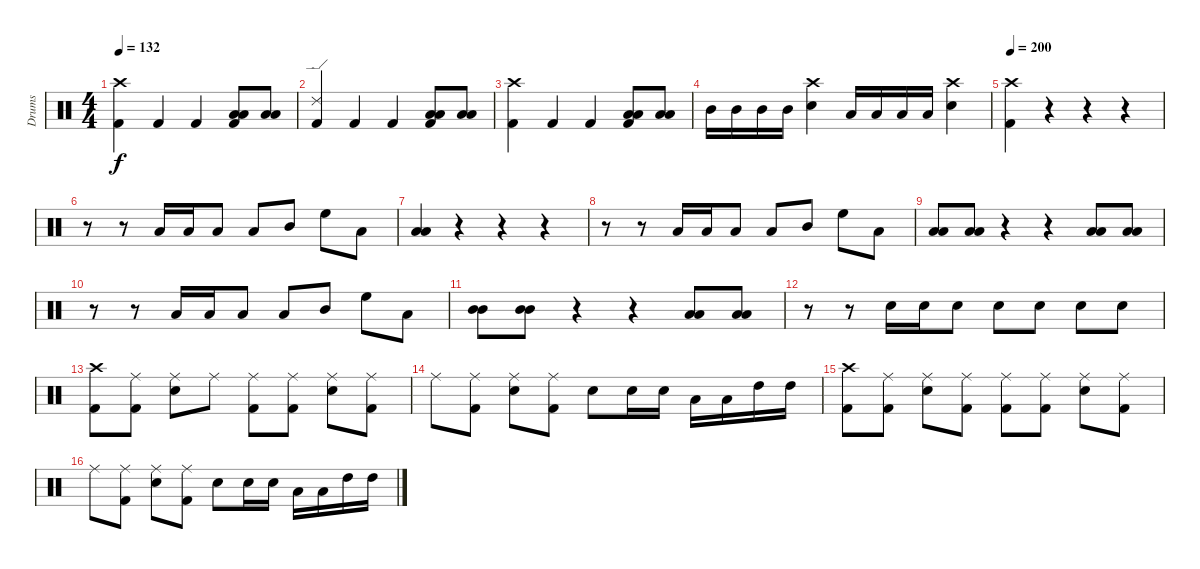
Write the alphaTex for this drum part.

\track ("Drums" "Drums") {instrument percussion}
\staff {score}
\articulation defaults
\ts (4 4)
\tempo 132
\clef neutral
\ks c
("Kick (hit) 2" "Crash high (hit)").4{dy f} "Kick (hit) 2".4 "Kick (hit) 2".4 ("Kick (hit) 2" "Low Floor Tom (hit)" "Low Floor Tom (hit)").8 ("Low Floor Tom (hit)" "Low Floor Tom (hit)").8 |
("Kick (hit) 2" "Ride (edge) 2").4 "Kick (hit) 2".4 "Kick (hit) 2".4 ("Kick (hit) 2" "Low Floor Tom (hit)" "Low Floor Tom (hit)").8 ("Low Floor Tom (hit)" "Low Floor Tom (hit)").8 |
("Kick (hit) 2" "Crash high (hit)").4 "Kick (hit) 2".4 "Kick (hit) 2".4 ("Kick (hit) 2" "Low Floor Tom (hit)" "Low Floor Tom (hit)").8 ("Low Floor Tom (hit)" "Low Floor Tom (hit)").8 |
"Mid Tom (hit)".16 "Mid Tom (hit)".16 "Mid Tom (hit)".16 "Mid Tom (hit)".16 ("Snare (hit) 2" "Crash high (hit)").4 "Low Tom (hit)".16 "Low Tom (hit)".16 "Low Tom (hit)".16 "Low Tom (hit)".16 ("Snare (hit) 2" "Crash high (hit)").4 |
\tempo 200
("Kick (hit) 2" "Crash high (hit)").4 r.4 r.4 r.4 |
r.8 r.8 "Low Tom (hit)".16 "Low Tom (hit)".16 "Low Tom (hit)".8 "Low Tom (hit)".8 "Mid Tom (hit)".8 "High Floor Tom (hit)".8 "Low Tom (hit)".8 |
("Low Tom (hit)" "Low Tom (hit)").4 r.4 r.4 r.4 |
r.8 r.8 "Low Tom (hit)".16 "Low Tom (hit)".16 "Low Tom (hit)".8 "Low Tom (hit)".8 "Mid Tom (hit)".8 "High Floor Tom (hit)".8 "Low Tom (hit)".8 |
("Low Tom (hit)" "Low Tom (hit)").8 ("Low Tom (hit)" "Low Tom (hit)").8 r.4 r.4 ("Low Tom (hit)" "Low Tom (hit)").8 ("Low Tom (hit)" "Low Tom (hit)").8 |
r.8 r.8 "Low Tom (hit)".16 "Low Tom (hit)".16 "Low Tom (hit)".8 "Low Tom (hit)".8 "Mid Tom (hit)".8 "High Floor Tom (hit)".8 "Low Tom (hit)".8 |
("Mid Tom (hit)" "Mid Tom (hit)").8 ("Mid Tom (hit)" "Mid Tom (hit)").8 r.4 r.4 ("Low Tom (hit)" "Low Tom (hit)").8 ("Low Tom (hit)" "Low Tom (hit)").8 |
r.8 r.8 "Snare (hit) 2".16 "Snare (hit) 2".16 "Snare (hit) 2".8 "Snare (hit) 2".8 "Snare (hit) 2".8 "Snare (hit) 2".8 "Snare (hit) 2".8 |
("Kick (hit) 2" "Crash high (hit)").8 ("Kick (hit) 2" "Ride (middle)").8 ("Snare (hit) 2" "Ride (middle)").8 "Ride (middle)".8 ("Kick (hit) 2" "Ride (middle)").8 ("Kick (hit) 2" "Ride (middle)").8 ("Snare (hit) 2" "Ride (middle)").8 ("Kick (hit) 2" "Ride (middle)").8 |
"Ride (middle)".8 ("Kick (hit) 2" "Ride (middle)").8 ("Snare (hit) 2" "Ride (middle)").8 ("Kick (hit) 2" "Ride (middle)").8 "Snare (hit) 2".8 "Snare (hit) 2".16 "Snare (hit) 2".16 "Low Tom (hit)".16 "Low Tom (hit)".16 "High Tom (hit)".16 "High Tom (hit)".16 |
("Kick (hit) 2" "Crash high (hit)").8 ("Kick (hit) 2" "Ride (middle)").8 ("Snare (hit) 2" "Ride (middle)").8 ("Kick (hit) 2" "Ride (middle)").8 ("Kick (hit) 2" "Ride (middle)").8 ("Kick (hit) 2" "Ride (middle)").8 ("Snare (hit) 2" "Ride (middle)").8 ("Kick (hit) 2" "Ride (middle)").8 |
"Ride (middle)".8 ("Kick (hit) 2" "Ride (middle)").8 ("Snare (hit) 2" "Ride (middle)").8 ("Kick (hit) 2" "Ride (middle)").8 "Snare (hit) 2".8 "Snare (hit) 2".16 "Snare (hit) 2".16 "Low Tom (hit)".16 "Low Tom (hit)".16 "High Tom (hit)".16 "High Tom (hit)".16
